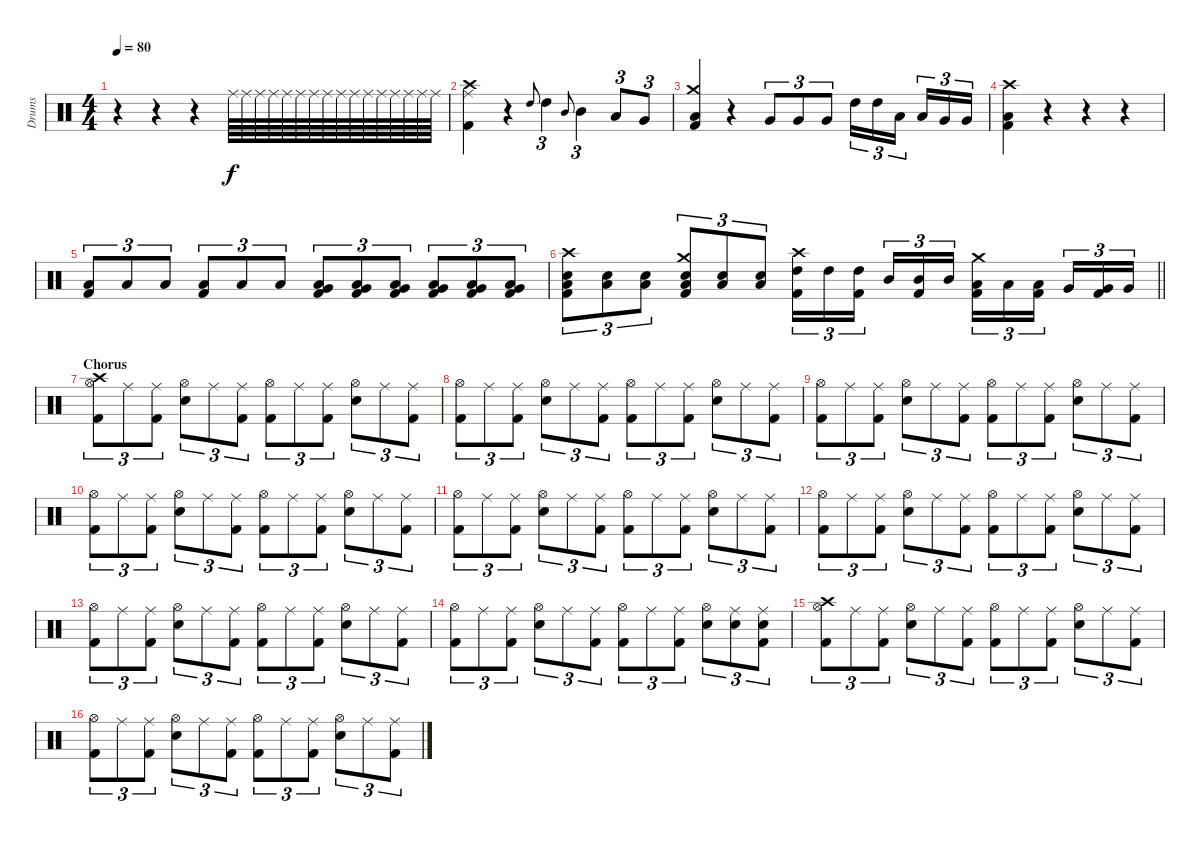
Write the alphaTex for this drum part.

\track ("Drums" "Drums") {instrument percussion}
\staff {score}
\articulation defaults
\ts (4 4)
\tempo 80
\clef neutral
\ks c
r.4{dy f} r.4 r.4 "Ride (middle)".64 "Ride (middle)".64 "Ride (middle)".64 "Ride (middle)".64 "Ride (middle)".64 "Ride (middle)".64 "Ride (middle)".64 "Ride (middle)".64 "Ride (middle)".64 "Ride (middle)".64 "Ride (middle)".64 "Ride (middle)".64 "Ride (middle)".64 "Ride (middle)".64 "Ride (middle)".64 "Ride (middle)".64 |
("Crash high (hit)" "Ride (middle)" "Kick (hit) 2").4 r.4 "High Tom (hit)".8{gr onbeat} "High Tom (hit)".4{tu (3 2)} "Mid Tom (hit)".8{gr onbeat} "Mid Tom (hit)".4{tu (3 2)} "Low Tom (hit)".8{tu (3 2)} "Very Low Tom (hit)".8{tu (3 2)} |
("Crash medium (hit)" "Low Floor Tom (hit)" "Kick (hit) 2").4 r.4 "Very Low Tom (hit)".8{tu (3 2)} "Very Low Tom (hit)".8{tu (3 2)} "Very Low Tom (hit)".8{tu (3 2)} "High Tom (hit)".16{tu (3 2)} "High Tom (hit)".16{tu (3 2)} "Low Tom (hit)".16{tu (3 2) beam splitsecondary} "Low Tom (hit)".16{tu (3 2)} "Very Low Tom (hit)".16{tu (3 2)} "Very Low Tom (hit)".16{tu (3 2)} |
("Crash high (hit)" "Low Floor Tom (hit)" "Kick (hit) 2").4 r.4 r.4 r.4 |
("Low Floor Tom (hit)" "Kick (hit) 2").8{tu (3 2)} "Low Floor Tom (hit)".8{tu (3 2)} "Low Floor Tom (hit)".8{tu (3 2)} ("Low Floor Tom (hit)" "Kick (hit) 2").8{tu (3 2)} "Low Floor Tom (hit)".8{tu (3 2)} "Low Floor Tom (hit)".8{tu (3 2)} ("Very Low Tom (hit)" "Low Floor Tom (hit)" "Kick (hit) 2").8{tu (3 2)} ("Very Low Tom (hit)" "Low Floor Tom (hit)" "Kick (hit) 2").8{tu (3 2)} ("Very Low Tom (hit)" "Low Floor Tom (hit)" "Kick (hit) 2").8{tu (3 2)} ("Very Low Tom (hit)" "Low Floor Tom (hit)" "Kick (hit) 2").8{tu (3 2)} ("Very Low Tom (hit)" "Low Floor Tom (hit)" "Kick (hit) 2").8{tu (3 2)} ("Very Low Tom (hit)" "Low Floor Tom (hit)" "Kick (hit) 2").8{tu (3 2)} |
\barLineRight lightlight
("Crash high (hit)" "Low Floor Tom (hit)" "Snare (hit) 2" "Kick (hit) 2").8{tu (3 2)} ("Low Floor Tom (hit)" "Snare (hit) 2").8{tu (3 2)} ("Low Floor Tom (hit)" "Snare (hit) 2").8{tu (3 2)} ("Crash medium (hit)" "Low Floor Tom (hit)" "Snare (hit) 2" "Kick (hit) 2").8{tu (3 2)} ("Low Floor Tom (hit)" "Snare (hit) 2").8{tu (3 2)} ("Low Floor Tom (hit)" "Snare (hit) 2").8{tu (3 2)} ("Crash high (hit)" "High Tom (hit)" "Kick (hit) 2").16{tu (3 2)} "High Tom (hit)".16{tu (3 2)} ("High Tom (hit)" "Kick (hit) 2").16{tu (3 2) beam splitsecondary} "Mid Tom (hit)".16{tu (3 2)} ("Mid Tom (hit)" "Kick (hit) 2").16{tu (3 2)} "Mid Tom (hit)".16{tu (3 2)} ("Crash medium (hit)" "Low Tom (hit)" "Kick (hit) 2").16{tu (3 2)} "Low Tom (hit)".16{tu (3 2)} ("Low Tom (hit)" "Kick (hit) 2").16{tu (3 2) beam splitsecondary} "Very Low Tom (hit)".16{tu (3 2)} ("Very Low Tom (hit)" "Kick (hit) 2").16{tu (3 2)} "Very Low Tom (hit)".16{tu (3 2)} |
\section ("" "Chorus")
("Crash high (hit)" "Hi-Hat (open)" "Kick (hit) 2").8{tu (3 2)} "Ride (middle)".8{tu (3 2)} ("Ride (middle)" "Kick (hit) 2").8{tu (3 2)} ("Hi-Hat (open)" "Snare (hit) 2").8{tu (3 2)} "Ride (middle)".8{tu (3 2)} ("Ride (middle)" "Kick (hit) 2").8{tu (3 2)} ("Hi-Hat (open)" "Kick (hit) 2").8{tu (3 2)} "Ride (middle)".8{tu (3 2)} ("Ride (middle)" "Kick (hit) 2").8{tu (3 2)} ("Hi-Hat (open)" "Snare (hit) 2").8{tu (3 2)} "Ride (middle)".8{tu (3 2)} ("Ride (middle)" "Kick (hit) 2").8{tu (3 2)} |
("Hi-Hat (open)" "Kick (hit) 2").8{tu (3 2)} "Ride (middle)".8{tu (3 2)} ("Ride (middle)" "Kick (hit) 2").8{tu (3 2)} ("Hi-Hat (open)" "Snare (hit) 2").8{tu (3 2)} "Ride (middle)".8{tu (3 2)} ("Ride (middle)" "Kick (hit) 2").8{tu (3 2)} ("Hi-Hat (open)" "Kick (hit) 2").8{tu (3 2)} "Ride (middle)".8{tu (3 2)} ("Ride (middle)" "Kick (hit) 2").8{tu (3 2)} ("Hi-Hat (open)" "Snare (hit) 2").8{tu (3 2)} "Ride (middle)".8{tu (3 2)} ("Ride (middle)" "Kick (hit) 2").8{tu (3 2)} |
("Hi-Hat (open)" "Kick (hit) 2").8{tu (3 2)} "Ride (middle)".8{tu (3 2)} ("Ride (middle)" "Kick (hit) 2").8{tu (3 2)} ("Hi-Hat (open)" "Snare (hit) 2").8{tu (3 2)} "Ride (middle)".8{tu (3 2)} ("Ride (middle)" "Kick (hit) 2").8{tu (3 2)} ("Hi-Hat (open)" "Kick (hit) 2").8{tu (3 2)} "Ride (middle)".8{tu (3 2)} ("Ride (middle)" "Kick (hit) 2").8{tu (3 2)} ("Hi-Hat (open)" "Snare (hit) 2").8{tu (3 2)} "Ride (middle)".8{tu (3 2)} ("Ride (middle)" "Kick (hit) 2").8{tu (3 2)} |
("Hi-Hat (open)" "Kick (hit) 2").8{tu (3 2)} "Ride (middle)".8{tu (3 2)} ("Ride (middle)" "Kick (hit) 2").8{tu (3 2)} ("Hi-Hat (open)" "Snare (hit) 2").8{tu (3 2)} "Ride (middle)".8{tu (3 2)} ("Ride (middle)" "Kick (hit) 2").8{tu (3 2)} ("Hi-Hat (open)" "Kick (hit) 2").8{tu (3 2)} "Ride (middle)".8{tu (3 2)} ("Ride (middle)" "Kick (hit) 2").8{tu (3 2)} ("Hi-Hat (open)" "Snare (hit) 2").8{tu (3 2)} "Ride (middle)".8{tu (3 2)} ("Ride (middle)" "Kick (hit) 2").8{tu (3 2)} |
("Hi-Hat (open)" "Kick (hit) 2").8{tu (3 2)} "Ride (middle)".8{tu (3 2)} ("Ride (middle)" "Kick (hit) 2").8{tu (3 2)} ("Hi-Hat (open)" "Snare (hit) 2").8{tu (3 2)} "Ride (middle)".8{tu (3 2)} ("Ride (middle)" "Kick (hit) 2").8{tu (3 2)} ("Hi-Hat (open)" "Kick (hit) 2").8{tu (3 2)} "Ride (middle)".8{tu (3 2)} ("Ride (middle)" "Kick (hit) 2").8{tu (3 2)} ("Hi-Hat (open)" "Snare (hit) 2").8{tu (3 2)} "Ride (middle)".8{tu (3 2)} ("Ride (middle)" "Kick (hit) 2").8{tu (3 2)} |
("Hi-Hat (open)" "Kick (hit) 2").8{tu (3 2)} "Ride (middle)".8{tu (3 2)} ("Ride (middle)" "Kick (hit) 2").8{tu (3 2)} ("Hi-Hat (open)" "Snare (hit) 2").8{tu (3 2)} "Ride (middle)".8{tu (3 2)} ("Ride (middle)" "Kick (hit) 2").8{tu (3 2)} ("Hi-Hat (open)" "Kick (hit) 2").8{tu (3 2)} "Ride (middle)".8{tu (3 2)} ("Ride (middle)" "Kick (hit) 2").8{tu (3 2)} ("Hi-Hat (open)" "Snare (hit) 2").8{tu (3 2)} "Ride (middle)".8{tu (3 2)} ("Ride (middle)" "Kick (hit) 2").8{tu (3 2)} |
("Hi-Hat (open)" "Kick (hit) 2").8{tu (3 2)} "Ride (middle)".8{tu (3 2)} ("Ride (middle)" "Kick (hit) 2").8{tu (3 2)} ("Hi-Hat (open)" "Snare (hit) 2").8{tu (3 2)} "Ride (middle)".8{tu (3 2)} ("Ride (middle)" "Kick (hit) 2").8{tu (3 2)} ("Hi-Hat (open)" "Kick (hit) 2").8{tu (3 2)} "Ride (middle)".8{tu (3 2)} ("Ride (middle)" "Kick (hit) 2").8{tu (3 2)} ("Hi-Hat (open)" "Snare (hit) 2").8{tu (3 2)} "Ride (middle)".8{tu (3 2)} ("Ride (middle)" "Kick (hit) 2").8{tu (3 2)} |
("Hi-Hat (open)" "Kick (hit) 2").8{tu (3 2)} "Ride (middle)".8{tu (3 2)} ("Ride (middle)" "Kick (hit) 2").8{tu (3 2)} ("Hi-Hat (open)" "Snare (hit) 2").8{tu (3 2)} "Ride (middle)".8{tu (3 2)} ("Ride (middle)" "Kick (hit) 2").8{tu (3 2)} ("Hi-Hat (open)" "Kick (hit) 2").8{tu (3 2)} "Ride (middle)".8{tu (3 2)} ("Ride (middle)" "Kick (hit) 2").8{tu (3 2)} ("Hi-Hat (open)" "Snare (hit) 2").8{tu (3 2)} ("Ride (middle)" "Snare (hit) 2").8{tu (3 2)} ("Ride (middle)" "Snare (hit) 2" "Kick (hit) 2").8{tu (3 2)} |
("Crash high (hit)" "Hi-Hat (open)" "Kick (hit) 2").8{tu (3 2)} "Ride (middle)".8{tu (3 2)} ("Ride (middle)" "Kick (hit) 2").8{tu (3 2)} ("Hi-Hat (open)" "Snare (hit) 2").8{tu (3 2)} "Ride (middle)".8{tu (3 2)} ("Ride (middle)" "Kick (hit) 2").8{tu (3 2)} ("Hi-Hat (open)" "Kick (hit) 2").8{tu (3 2)} "Ride (middle)".8{tu (3 2)} ("Ride (middle)" "Kick (hit) 2").8{tu (3 2)} ("Hi-Hat (open)" "Snare (hit) 2").8{tu (3 2)} "Ride (middle)".8{tu (3 2)} ("Ride (middle)" "Kick (hit) 2").8{tu (3 2)} |
("Hi-Hat (open)" "Kick (hit) 2").8{tu (3 2)} "Ride (middle)".8{tu (3 2)} ("Ride (middle)" "Kick (hit) 2").8{tu (3 2)} ("Hi-Hat (open)" "Snare (hit) 2").8{tu (3 2)} "Ride (middle)".8{tu (3 2)} ("Ride (middle)" "Kick (hit) 2").8{tu (3 2)} ("Hi-Hat (open)" "Kick (hit) 2").8{tu (3 2)} "Ride (middle)".8{tu (3 2)} ("Ride (middle)" "Kick (hit) 2").8{tu (3 2)} ("Hi-Hat (open)" "Snare (hit) 2").8{tu (3 2)} "Ride (middle)".8{tu (3 2)} ("Ride (middle)" "Kick (hit) 2").8{tu (3 2)}
